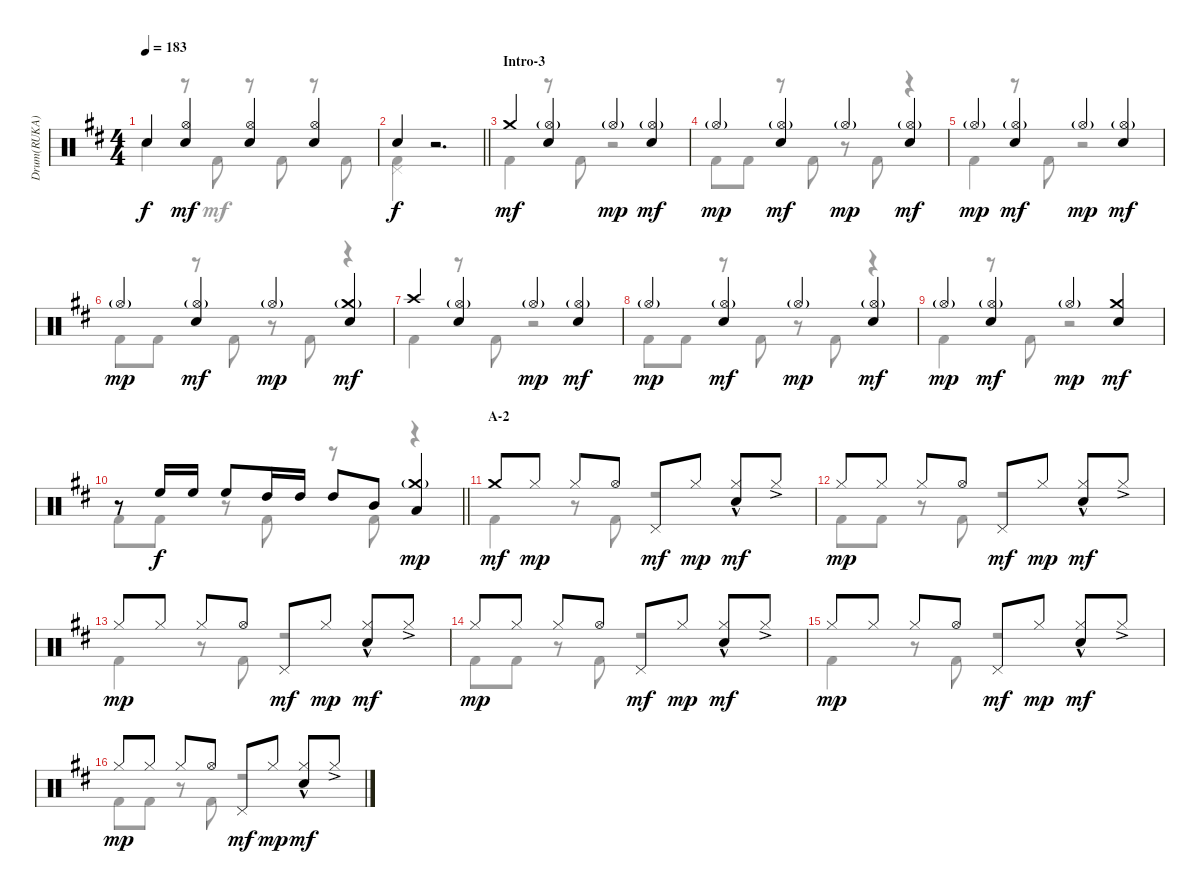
\track ("Drum(RUKA)" "Drum(RUKA)") {instrument percussion}
\staff {score}
\articulation defaults
\voice
\ts (4 4)
\tempo 183
\clef neutral
\ks d "Snare (hit)"{t}.4{dy f}
("Hi-Hat (open)" "Snare (hit) 2").4{dy mf} ("Hi-Hat (open)" "Snare (hit) 2").4 ("Hi-Hat (open)" "Snare (hit) 2").4 |
\barLineRight lightlight "Snare (hit) 2".4{dy f}
r.2{d} |
\section ("" "Intro-3")
"Crash medium (hit)".4{dy mf} ("Hi-Hat (open)"{g} "Snare (hit) 2").4 "Hi-Hat (open)"{g}.4{dy mp} ("Hi-Hat (open)"{g} "Snare (hit) 2").4{dy mf} |
"Hi-Hat (open)"{g}.4{dy mp} ("Hi-Hat (open)"{g} "Snare (hit) 2").4{dy mf} "Hi-Hat (open)"{g}.4{dy mp} ("Hi-Hat (open)"{g} "Snare (hit) 2").4{dy mf} |
"Hi-Hat (open)"{g}.4{dy mp} ("Hi-Hat (open)"{g} "Snare (hit) 2").4{dy mf} "Hi-Hat (open)"{g}.4{dy mp} ("Hi-Hat (open)"{g} "Snare (hit) 2").4{dy mf} |
"Hi-Hat (open)"{g}.4{dy mp} ("Hi-Hat (open)"{g} "Snare (hit) 2").4{dy mf} "Hi-Hat (open)"{g}.4{dy mp} ("Crash medium (hit)"{g} "Snare (hit) 2").4{dy mf} |
"Crash high (hit)".4 ("Hi-Hat (open)"{g} "Snare (hit) 2").4 "Hi-Hat (open)"{g}.4{dy mp} ("Hi-Hat (open)"{g} "Snare (hit) 2").4{dy mf} |
"Hi-Hat (open)"{g}.4{dy mp} ("Hi-Hat (open)"{g} "Snare (hit) 2").4{dy mf} "Hi-Hat (open)"{g}.4{dy mp} ("Hi-Hat (open)"{g} "Snare (hit) 2").4{dy mf} |
"Hi-Hat (open)"{g}.4{dy mp} ("Hi-Hat (open)"{g} "Snare (hit) 2").4{dy mf} "Hi-Hat (open)"{g}.4{dy mp} ("Crash medium (hit)" "Snare (hit) 2").4{dy mf} |
\barLineRight lightlight
r.8 "High Floor Tom (hit)".16{dy f} "High Floor Tom (hit)".16 "High Floor Tom (hit)".8 "High Tom (hit)".16 "High Tom (hit)".16 "High Tom (hit)".8 "Mid Tom (hit)".8 ("Crash medium (hit)"{g} "Low Tom (hit)").4{dy mp} |
\section ("" "A-2")
"Crash medium (hit)".8{dy mf} "Hi-Hat (closed)".8{dy mp} "Hi-Hat (closed)".8 "Hi-Hat (open)".8 "Pedal Hi-Hat (hit)".8{dy mf} "Hi-Hat (closed)".8{dy mp} ("Hi-Hat (closed)"{hac} "Snare (hit) 2").8{dy mf} "Hi-Hat (closed)"{ac}.8 |
"Hi-Hat (closed)".8{dy mp} "Hi-Hat (closed)".8 "Hi-Hat (closed)".8 "Hi-Hat (open)".8 "Pedal Hi-Hat (hit)".8{dy mf} "Hi-Hat (closed)".8{dy mp} ("Hi-Hat (closed)"{hac} "Snare (hit) 2").8{dy mf} "Hi-Hat (closed)"{ac}.8 |
"Hi-Hat (closed)".8{dy mp} "Hi-Hat (closed)".8 "Hi-Hat (closed)".8 "Hi-Hat (open)".8 "Pedal Hi-Hat (hit)".8{dy mf} "Hi-Hat (closed)".8{dy mp} ("Hi-Hat (closed)"{hac} "Snare (hit) 2").8{dy mf} "Hi-Hat (closed)"{ac}.8 |
"Hi-Hat (closed)".8{dy mp} "Hi-Hat (closed)".8 "Hi-Hat (closed)".8 "Hi-Hat (open)".8 "Pedal Hi-Hat (hit)".8{dy mf} "Hi-Hat (closed)".8{dy mp} ("Hi-Hat (closed)"{hac} "Snare (hit) 2").8{dy mf} "Hi-Hat (closed)"{ac}.8 |
"Hi-Hat (closed)".8{dy mp} "Hi-Hat (closed)".8 "Hi-Hat (closed)".8 "Hi-Hat (open)".8 "Pedal Hi-Hat (hit)".8{dy mf} "Hi-Hat (closed)".8{dy mp} ("Hi-Hat (closed)"{hac} "Snare (hit) 2").8{dy mf} "Hi-Hat (closed)"{ac}.8 |
"Hi-Hat (closed)".8{dy mp} "Hi-Hat (closed)".8 "Hi-Hat (closed)".8 "Hi-Hat (open)".8 "Pedal Hi-Hat (hit)".8{dy mf} "Hi-Hat (closed)".8{dy mp} ("Hi-Hat (closed)"{hac} "Snare (hit) 2").8{dy mf} "Hi-Hat (closed)"{ac}.8
\voice
\clef neutral
\ottava regular
\simile none
\ks d "Snare (hit)"{t}.4{dy f}
r.8 "Kick (hit) 2".8{dy mf} r.8 "Kick (hit) 2".8 r.8 "Kick (hit) 2".8 |
\barLineRight lightlight
("Pedal Hi-Hat (hit)" "Kick (hit) 2").4 r.2{d} |
"Kick (hit) 2".4 r.8 "Kick (hit) 2".8 r.2 |
"Kick (hit) 2".8 "Kick (hit) 2".8 r.8 "Kick (hit) 2".8 r.8 "Kick (hit) 2".8 r.4 |
"Kick (hit) 2".4 r.8 "Kick (hit) 2".8 r.2 |
"Kick (hit) 2".8 "Kick (hit) 2".8 r.8 "Kick (hit) 2".8 r.8 "Kick (hit) 2".8 r.4 |
"Kick (hit) 2".4 r.8 "Kick (hit) 2".8 r.2 |
"Kick (hit) 2".8 "Kick (hit) 2".8 r.8 "Kick (hit) 2".8 r.8 "Kick (hit) 2".8 r.4 |
"Kick (hit) 2".4 r.8 "Kick (hit) 2".8 r.2 |
\barLineRight lightlight "Kick (hit) 2".8 "Kick (hit) 2".8
r.8 "Kick (hit) 2".8 r.8 "Kick (hit) 2".8 r.4 |
"Kick (hit) 2".4 r.8 "Kick (hit) 2".8 r.2 |
"Kick (hit) 2".8 "Kick (hit) 2".8 r.8 "Kick (hit) 2".8 r.2 |
"Kick (hit) 2".4 r.8 "Kick (hit) 2".8 r.2 |
"Kick (hit) 2".8 "Kick (hit) 2".8 r.8 "Kick (hit) 2".8 r.2 |
"Kick (hit) 2".4 r.8 "Kick (hit) 2".8 r.2 |
"Kick (hit) 2".8 "Kick (hit) 2".8 r.8 "Kick (hit) 2".8 r.2
